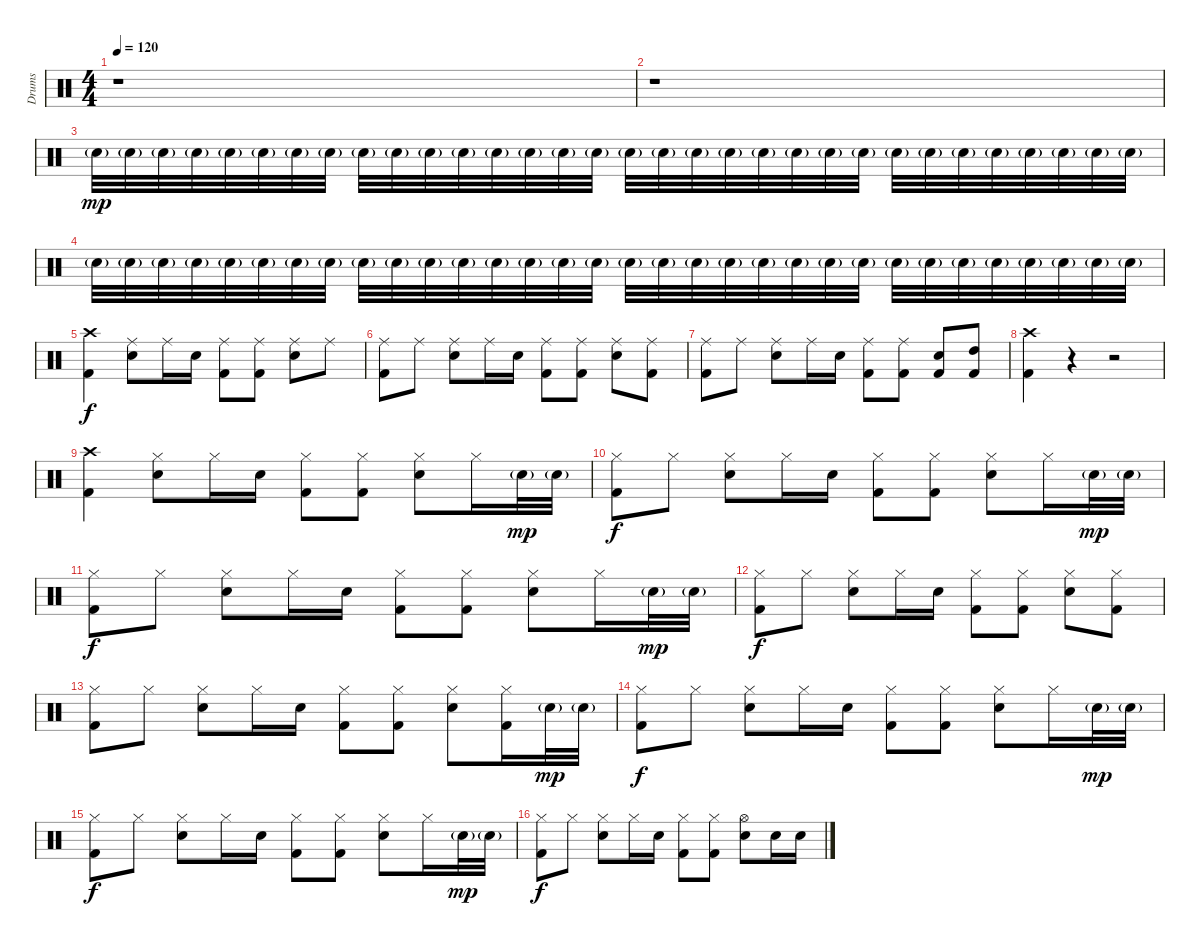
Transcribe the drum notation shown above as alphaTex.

\track ("Drums" "Drums") {instrument percussion}
\staff {score}
\articulation defaults
\ts (4 4)
\tempo 120
\clef neutral
\ks c
r.1{dy mp} |
r.1 |
"Snare (hit) 2"{g}.32 "Snare (hit) 2"{g}.32 "Snare (hit) 2"{g}.32 "Snare (hit) 2"{g}.32 "Snare (hit) 2"{g}.32 "Snare (hit) 2"{g}.32 "Snare (hit) 2"{g}.32 "Snare (hit) 2"{g}.32 "Snare (hit) 2"{g}.32 "Snare (hit) 2"{g}.32 "Snare (hit) 2"{g}.32 "Snare (hit) 2"{g}.32 "Snare (hit) 2"{g}.32 "Snare (hit) 2"{g}.32 "Snare (hit) 2"{g}.32 "Snare (hit) 2"{g}.32 "Snare (hit) 2"{g}.32 "Snare (hit) 2"{g}.32 "Snare (hit) 2"{g}.32 "Snare (hit) 2"{g}.32 "Snare (hit) 2"{g}.32 "Snare (hit) 2"{g}.32 "Snare (hit) 2"{g}.32 "Snare (hit) 2"{g}.32 "Snare (hit) 2"{g}.32 "Snare (hit) 2"{g}.32 "Snare (hit) 2"{g}.32 "Snare (hit) 2"{g}.32 "Snare (hit) 2"{g}.32 "Snare (hit) 2"{g}.32 "Snare (hit) 2"{g}.32 "Snare (hit) 2"{g}.32 |
"Snare (hit) 2"{g}.32 "Snare (hit) 2"{g}.32 "Snare (hit) 2"{g}.32 "Snare (hit) 2"{g}.32 "Snare (hit) 2"{g}.32 "Snare (hit) 2"{g}.32 "Snare (hit) 2"{g}.32 "Snare (hit) 2"{g}.32 "Snare (hit) 2"{g}.32 "Snare (hit) 2"{g}.32 "Snare (hit) 2"{g}.32 "Snare (hit) 2"{g}.32 "Snare (hit) 2"{g}.32 "Snare (hit) 2"{g}.32 "Snare (hit) 2"{g}.32 "Snare (hit) 2"{g}.32 "Snare (hit) 2"{g}.32 "Snare (hit) 2"{g}.32 "Snare (hit) 2"{g}.32 "Snare (hit) 2"{g}.32 "Snare (hit) 2"{g}.32 "Snare (hit) 2"{g}.32 "Snare (hit) 2"{g}.32 "Snare (hit) 2"{g}.32 "Snare (hit) 2"{g}.32 "Snare (hit) 2"{g}.32 "Snare (hit) 2"{g}.32 "Snare (hit) 2"{g}.32 "Snare (hit) 2"{g}.32 "Snare (hit) 2"{g}.32 "Snare (hit) 2"{g}.32 "Snare (hit) 2"{g}.32 |
("Crash high (hit)" "Kick (hit) 2").4{dy f} ("Ride (middle)" "Snare (hit) 2").8 "Ride (middle)".16 "Snare (hit) 2".16 ("Ride (middle)" "Kick (hit) 2").8 ("Ride (middle)" "Kick (hit) 2").8 ("Ride (middle)" "Snare (hit) 2").8 "Ride (middle)".8 |
("Ride (middle)" "Kick (hit) 2").8 "Ride (middle)".8 ("Ride (middle)" "Snare (hit) 2").8 "Ride (middle)".16 "Snare (hit) 2".16 ("Ride (middle)" "Kick (hit) 2").8 ("Ride (middle)" "Kick (hit) 2").8 ("Ride (middle)" "Snare (hit) 2").8 ("Ride (middle)" "Kick (hit) 2").8 |
("Ride (middle)" "Kick (hit) 2").8 "Ride (middle)".8 ("Ride (middle)" "Snare (hit) 2").8 "Ride (middle)".16 "Snare (hit) 2".16 ("Ride (middle)" "Kick (hit) 2").8 ("Ride (middle)" "Kick (hit) 2").8 ("Snare (hit) 2" "Kick (hit) 2").8 ("High Tom (hit)" "Kick (hit) 2").8 |
("Crash high (hit)" "Kick (hit) 2").4 r.4 r.2 |
("Crash high (hit)" "Kick (hit) 2").4 ("Hi-Hat (closed)" "Snare (hit) 2").8 "Hi-Hat (closed)".16 "Snare (hit) 2".16 ("Hi-Hat (closed)" "Kick (hit) 2").8 ("Hi-Hat (closed)" "Kick (hit) 2").8 ("Hi-Hat (closed)" "Snare (hit) 2").8 "Hi-Hat (closed)".16 "Snare (hit) 2"{g}.32{dy mp} "Snare (hit) 2"{g}.32 |
("Hi-Hat (closed)" "Kick (hit) 2").8{dy f} "Hi-Hat (closed)".8 ("Hi-Hat (closed)" "Snare (hit) 2").8 "Hi-Hat (closed)".16 "Snare (hit) 2".16 ("Hi-Hat (closed)" "Kick (hit) 2").8 ("Hi-Hat (closed)" "Kick (hit) 2").8 ("Hi-Hat (closed)" "Snare (hit) 2").8 "Hi-Hat (closed)".16 "Snare (hit) 2"{g}.32{dy mp} "Snare (hit) 2"{g}.32 |
("Hi-Hat (closed)" "Kick (hit) 2").8{dy f} "Hi-Hat (closed)".8 ("Hi-Hat (closed)" "Snare (hit) 2").8 "Hi-Hat (closed)".16 "Snare (hit) 2".16 ("Hi-Hat (closed)" "Kick (hit) 2").8 ("Hi-Hat (closed)" "Kick (hit) 2").8 ("Hi-Hat (closed)" "Snare (hit) 2").8 "Hi-Hat (closed)".16 "Snare (hit) 2"{g}.32{dy mp} "Snare (hit) 2"{g}.32 |
("Hi-Hat (closed)" "Kick (hit) 2").8{dy f} "Hi-Hat (closed)".8 ("Hi-Hat (closed)" "Snare (hit) 2").8 "Hi-Hat (closed)".16 "Snare (hit) 2".16 ("Hi-Hat (closed)" "Kick (hit) 2").8 ("Hi-Hat (closed)" "Kick (hit) 2").8 ("Hi-Hat (closed)" "Snare (hit) 2").8 ("Hi-Hat (closed)" "Kick (hit) 2").8 |
("Hi-Hat (closed)" "Kick (hit) 2").8 "Hi-Hat (closed)".8 ("Hi-Hat (closed)" "Snare (hit) 2").8 "Hi-Hat (closed)".16 "Snare (hit) 2".16 ("Hi-Hat (closed)" "Kick (hit) 2").8 ("Hi-Hat (closed)" "Kick (hit) 2").8 ("Hi-Hat (closed)" "Snare (hit) 2").8 ("Hi-Hat (closed)" "Kick (hit) 2").16 "Snare (hit) 2"{g}.32{dy mp} "Snare (hit) 2"{g}.32 |
("Hi-Hat (closed)" "Kick (hit) 2").8{dy f} "Hi-Hat (closed)".8 ("Hi-Hat (closed)" "Snare (hit) 2").8 "Hi-Hat (closed)".16 "Snare (hit) 2".16 ("Hi-Hat (closed)" "Kick (hit) 2").8 ("Hi-Hat (closed)" "Kick (hit) 2").8 ("Hi-Hat (closed)" "Snare (hit) 2").8 "Hi-Hat (closed)".16 "Snare (hit) 2"{g}.32{dy mp} "Snare (hit) 2"{g}.32 |
("Hi-Hat (closed)" "Kick (hit) 2").8{dy f} "Hi-Hat (closed)".8 ("Hi-Hat (closed)" "Snare (hit) 2").8 "Hi-Hat (closed)".16 "Snare (hit) 2".16 ("Hi-Hat (closed)" "Kick (hit) 2").8 ("Hi-Hat (closed)" "Kick (hit) 2").8 ("Hi-Hat (closed)" "Snare (hit) 2").8 "Hi-Hat (closed)".16 "Snare (hit) 2"{g}.32{dy mp} "Snare (hit) 2"{g}.32 |
("Hi-Hat (closed)" "Kick (hit) 2").8{dy f} "Hi-Hat (closed)".8 ("Hi-Hat (closed)" "Snare (hit) 2").8 "Hi-Hat (closed)".16 "Snare (hit) 2".16 ("Hi-Hat (closed)" "Kick (hit) 2").8 ("Hi-Hat (closed)" "Kick (hit) 2").8 ("Hi-Hat (open)" "Snare (hit) 2").8 "Snare (hit) 2".16 "Snare (hit) 2".16
